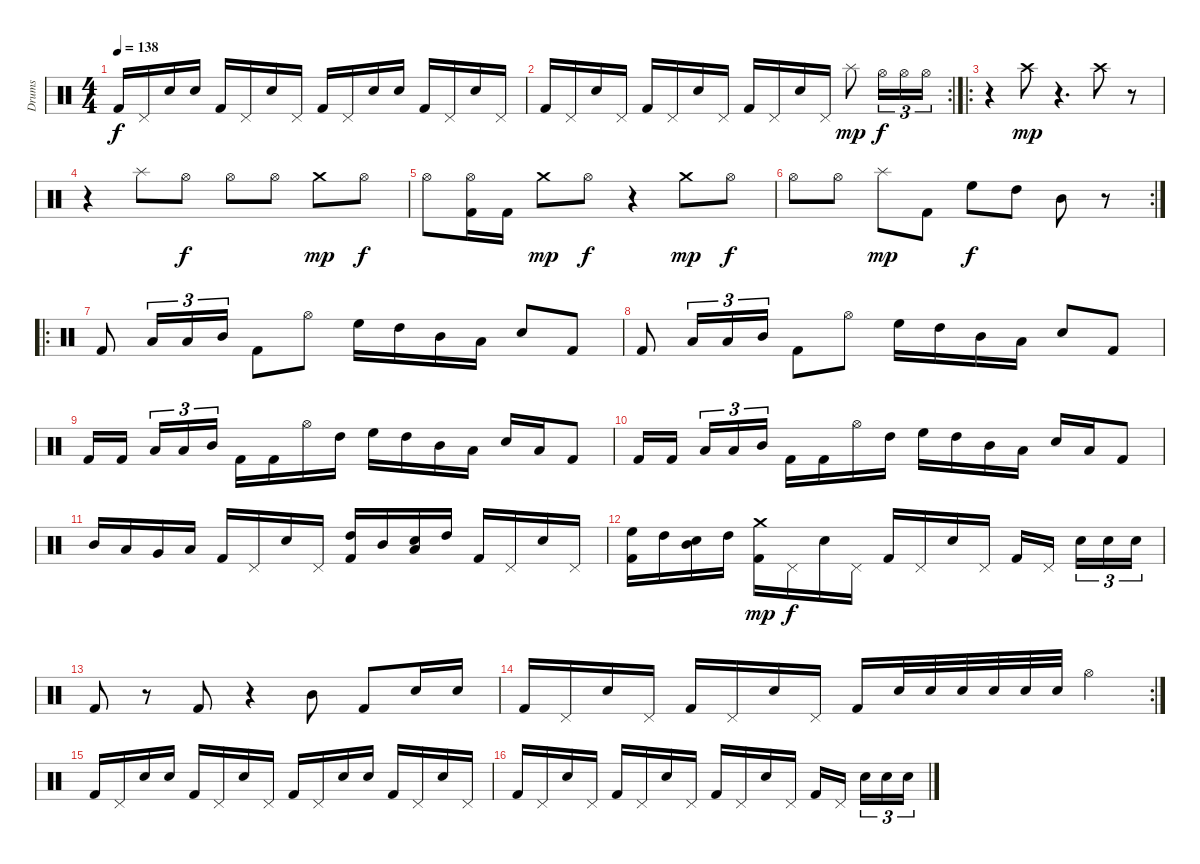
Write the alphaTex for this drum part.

\track ("Drums" "Drums") {instrument percussion}
\staff {score}
\articulation defaults
\ts (4 4)
\tempo 138
\clef neutral
\ks c "Kick (hit) 2".16{dy f} "Pedal Hi-Hat (hit)".16 "Electric Snare (hit)".16 "Electric Snare (hit)".16 "Kick (hit) 2".16 "Pedal Hi-Hat (hit)".16 "Electric Snare (hit)".16 "Pedal Hi-Hat (hit)".16 "Kick (hit) 2".16 "Pedal Hi-Hat (hit)".16 "Electric Snare (hit)".16 "Electric Snare (hit)".16 "Kick (hit) 2".16 "Pedal Hi-Hat (hit)".16 "Electric Snare (hit)".16 "Pedal Hi-Hat (hit)".16
|
\rc 2 "Kick (hit) 2".16 "Pedal Hi-Hat (hit)".16 "Electric Snare (hit)".16 "Pedal Hi-Hat (hit)".16 "Kick (hit) 2".16 "Pedal Hi-Hat (hit)".16 "Electric Snare (hit)".16 "Pedal Hi-Hat (hit)".16 "Kick (hit) 2".16 "Pedal Hi-Hat (hit)".16 "Electric Snare (hit)".16 "Pedal Hi-Hat (hit)".16 "Splash (hit)".8{dy mp} "Hi-Hat (open)".16{tu (3 2) dy f} "Hi-Hat (open)".16{tu (3 2)} "Hi-Hat (open)".16{tu (3 2)}
|
\ro
r.4 "Crash high (hit)".8{dy mp} r.4{d} "Crash high (hit)".8 r.8 |
r.4 "Splash (hit)".8 "Hi-Hat (open)".8{dy f} "Hi-Hat (open)".8 "Hi-Hat (open)".8 "Crash medium (hit)".8{dy mp} "Hi-Hat (open)".8{dy f} |
"Hi-Hat (open)".8 ("Hi-Hat (open)" "Kick (hit) 2").16 "Kick (hit) 2".16 "Crash medium (hit)".8{dy mp} "Hi-Hat (open)".8{dy f} r.4 "Crash medium (hit)".8{dy mp} "Hi-Hat (open)".8{dy f} |
\rc 2 "Hi-Hat (open)".8 "Hi-Hat (open)".8 "Splash (hit)".8{dy mp} "Kick (hit) 2".8 "High Floor Tom (hit)".8{dy f} "High Tom (hit)".8 "Mid Tom (hit)".8
r.8 |
\ro "Kick (hit) 2".8 "Low Tom (hit)".16{tu (3 2)} "Low Tom (hit)".16{tu (3 2)} "Mid Tom (hit)".16{tu (3 2)} "Kick (hit) 2".8 "Hi-Hat (open)".8 "High Floor Tom (hit)".16 "High Tom (hit)".16 "Mid Tom (hit)".16 "Low Tom (hit)".16 "Electric Snare (hit)".8 "Kick (hit) 2".8
|
"Kick (hit) 2".8 "Low Tom (hit)".16{tu (3 2)} "Low Tom (hit)".16{tu (3 2)} "Mid Tom (hit)".16{tu (3 2)} "Kick (hit) 2".8 "Hi-Hat (open)".8 "High Floor Tom (hit)".16 "High Tom (hit)".16 "Mid Tom (hit)".16 "Low Tom (hit)".16 "Electric Snare (hit)".8 "Kick (hit) 2".8 |
"Kick (hit) 2".16 "Kick (hit) 2".16 "Low Tom (hit)".16{tu (3 2)} "Low Tom (hit)".16{tu (3 2)} "Mid Tom (hit)".16{tu (3 2)} "Kick (hit) 2".16 "Kick (hit) 2".16 "Hi-Hat (open)".16 "High Tom (hit)".16 "High Floor Tom (hit)".16 "High Tom (hit)".16 "Mid Tom (hit)".16 "Low Tom (hit)".16 "Electric Snare (hit)".16 "Low Tom (hit)".16 "Kick (hit) 2".8 |
"Kick (hit) 2".16 "Kick (hit) 2".16 "Low Tom (hit)".16{tu (3 2)} "Low Tom (hit)".16{tu (3 2)} "Mid Tom (hit)".16{tu (3 2)} "Kick (hit) 2".16 "Kick (hit) 2".16 "Hi-Hat (open)".16 "High Tom (hit)".16 "High Floor Tom (hit)".16 "High Tom (hit)".16 "Mid Tom (hit)".16 "Low Tom (hit)".16 "Electric Snare (hit)".16 "Low Tom (hit)".16 "Kick (hit) 2".8 |
"Mid Tom (hit)".16 "Low Tom (hit)".16 "Very Low Tom (hit)".16 "Low Tom (hit)".16 "Kick (hit) 2".16 "Pedal Hi-Hat (hit)".16 "Electric Snare (hit)".16 "Pedal Hi-Hat (hit)".16 ("High Tom (hit)" "Kick (hit) 2").16 "Mid Tom (hit)".16 ("Low Tom (hit)" "Electric Snare (hit)").16 "High Tom (hit)".16 "Kick (hit) 2".16 "Pedal Hi-Hat (hit)".16 "Electric Snare (hit)".16 "Pedal Hi-Hat (hit)".16 |
("High Floor Tom (hit)" "Kick (hit) 2").16 "High Tom (hit)".16 ("Mid Tom (hit)" "Electric Snare (hit)").16 "High Tom (hit)".16 ("Crash medium (hit)" "Kick (hit) 2").16{dy mp} "Pedal Hi-Hat (hit)".16{dy f} "Electric Snare (hit)".16 "Pedal Hi-Hat (hit)".16 "Kick (hit) 2".16 "Pedal Hi-Hat (hit)".16 "Electric Snare (hit)".16 "Pedal Hi-Hat (hit)".16 "Kick (hit) 2".16 "Pedal Hi-Hat (hit)".16 "Electric Snare (hit)".16{tu (3 2)} "Electric Snare (hit)".16{tu (3 2)} "Electric Snare (hit)".16{tu (3 2)} |
"Kick (hit) 2".8 r.8 "Kick (hit) 2".8 r.4 "Mid Tom (hit)".8 "Kick (hit) 2".8 "Electric Snare (hit)".16 "Electric Snare (hit)".16 |
\rc 2 "Kick (hit) 2".16 "Pedal Hi-Hat (hit)".16 "Electric Snare (hit)".16 "Pedal Hi-Hat (hit)".16 "Kick (hit) 2".16 "Pedal Hi-Hat (hit)".16 "Electric Snare (hit)".16 "Pedal Hi-Hat (hit)".16 "Kick (hit) 2".16 "Electric Snare (hit)".32 "Electric Snare (hit)".32 "Electric Snare (hit)".32 "Electric Snare (hit)".32 "Electric Snare (hit)".32 "Electric Snare (hit)".32 "Hi-Hat (open)".4
|
"Kick (hit) 2".16 "Pedal Hi-Hat (hit)".16 "Electric Snare (hit)".16 "Electric Snare (hit)".16 "Kick (hit) 2".16 "Pedal Hi-Hat (hit)".16 "Electric Snare (hit)".16 "Pedal Hi-Hat (hit)".16 "Kick (hit) 2".16 "Pedal Hi-Hat (hit)".16 "Electric Snare (hit)".16 "Electric Snare (hit)".16 "Kick (hit) 2".16 "Pedal Hi-Hat (hit)".16 "Electric Snare (hit)".16 "Pedal Hi-Hat (hit)".16 |
"Kick (hit) 2".16 "Pedal Hi-Hat (hit)".16 "Electric Snare (hit)".16 "Pedal Hi-Hat (hit)".16 "Kick (hit) 2".16 "Pedal Hi-Hat (hit)".16 "Electric Snare (hit)".16 "Pedal Hi-Hat (hit)".16 "Kick (hit) 2".16 "Pedal Hi-Hat (hit)".16 "Electric Snare (hit)".16 "Pedal Hi-Hat (hit)".16 "Kick (hit) 2".16 "Pedal Hi-Hat (hit)".16 "Electric Snare (hit)".16{tu (3 2)} "Electric Snare (hit)".16{tu (3 2)} "Electric Snare (hit)".16{tu (3 2)}
